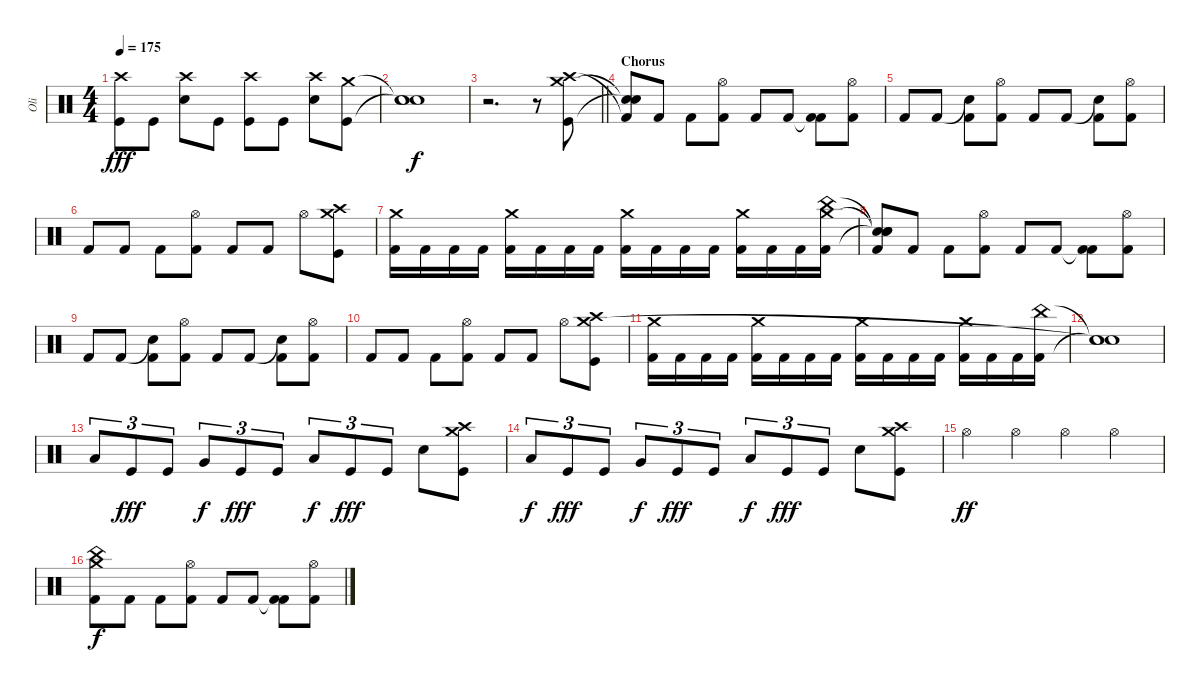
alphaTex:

\track ("Oli" "Oli") {instrument percussion}
\staff {score}
\articulation defaults
\ts (4 4)
\tempo 175
\clef neutral
\ks c
("Crash high (hit)" "Kick (hit)").8{dy fff} "Kick (hit)".8 ("Crash high (hit)" "Snare (hit) 2").8 "Kick (hit)".8 ("Crash high (hit)" "Kick (hit)").8 "Kick (hit)".8 ("Crash high (hit)" "Snare (hit) 2").8 ("Crash medium (hit)" "Kick (hit)").8 |
("Snare (hit)"{t} "Snare (hit)"{t} "Snare (hit)").1{dy f} |
\barLineRight lightlight
r.2{d} r.8 ("Kick (hit)" "Crash medium (hit)" "Crash high (hit)").8 |
\section ("" "Chorus")
("Snare (hit)"{t} "Snare (hit)"{t} "Kick (hit) 2"{t}).8 "Kick (hit) 2".8 "Kick (hit) 2".8 ("Hi-Hat (open)" "Kick (hit) 2").8 "Kick (hit) 2".8 "Kick (hit) 2".8 ("Kick (hit) 2"{t} "Kick (hit) 2").8 ("Hi-Hat (open)" "Kick (hit) 2").8 |
"Kick (hit) 2".8 "Kick (hit) 2".8 ("Snare (hit)"{t} "Kick (hit) 2").8 ("Hi-Hat (open)" "Kick (hit) 2").8 "Kick (hit) 2".8 "Kick (hit) 2".8 ("Snare (hit)"{t} "Kick (hit) 2").8 ("Hi-Hat (open)" "Kick (hit) 2").8 |
"Kick (hit) 2".8 "Kick (hit) 2".8 "Kick (hit) 2".8 ("Hi-Hat (open)" "Kick (hit) 2").8 "Kick (hit) 2".8 "Kick (hit) 2".8 "Hi-Hat (open)".8 ("Kick (hit)" "Crash high (hit)" "Crash medium (hit)").8 |
("Kick (hit) 2" "Crash medium (hit)").16 "Kick (hit) 2".16 "Kick (hit) 2".16 "Kick (hit) 2".16 ("Kick (hit) 2" "Crash medium (hit)").16 "Kick (hit) 2".16 "Kick (hit) 2".16 "Kick (hit) 2".16 ("Kick (hit) 2" "Crash medium (hit)").16 "Kick (hit) 2".16 "Kick (hit) 2".16 "Kick (hit) 2".16 ("Kick (hit) 2" "Crash medium (hit)").16 "Kick (hit) 2".16 "Kick (hit) 2".16 ("China (hit)" "Kick (hit) 2" "Crash medium (hit)").16 |
("Snare (hit)"{t} "Snare (hit)"{t} "Snare (hit)"{t} "Kick (hit) 2").8 "Kick (hit) 2".8 "Kick (hit) 2".8 ("Hi-Hat (open)" "Kick (hit) 2").8 "Kick (hit) 2".8 "Kick (hit) 2".8 ("Kick (hit) 2"{t} "Kick (hit) 2").8 ("Hi-Hat (open)" "Kick (hit) 2").8 |
"Kick (hit) 2".8 "Kick (hit) 2".8 ("Snare (hit)"{t} "Kick (hit) 2").8 ("Hi-Hat (open)" "Kick (hit) 2").8 "Kick (hit) 2".8 "Kick (hit) 2".8 ("Snare (hit)"{t} "Kick (hit) 2").8 ("Hi-Hat (open)" "Kick (hit) 2").8 |
"Kick (hit) 2".8 "Kick (hit) 2".8 "Kick (hit) 2".8 ("Hi-Hat (open)" "Kick (hit) 2").8 "Kick (hit) 2".8 "Kick (hit) 2".8 "Hi-Hat (open)".8 ("Kick (hit)" "Crash high (hit)" "Crash medium (hit)").8 |
("Kick (hit) 2" "Crash medium (hit)").16 "Kick (hit) 2".16 "Kick (hit) 2".16 "Kick (hit) 2".16 ("Kick (hit) 2" "Crash medium (hit)").16 "Kick (hit) 2".16 "Kick (hit) 2".16 "Kick (hit) 2".16 ("Kick (hit) 2" "Crash medium (hit)").16 "Kick (hit) 2".16 "Kick (hit) 2".16 "Kick (hit) 2".16 ("Kick (hit) 2" "Crash medium (hit)").16 "Kick (hit) 2".16 "Kick (hit) 2".16 ("China (hit)" "Kick (hit) 2").16 |
("Snare (hit)"{t} "Snare (hit)"{t} "Snare (hit)"{t}).1 |
"Low Tom (hit)".8{tu (3 2)} "Kick (hit)".8{tu (3 2) dy fff} "Kick (hit)".8{tu (3 2)} "Very Low Tom (hit)".8{tu (3 2) dy f} "Kick (hit)".8{tu (3 2) dy fff} "Kick (hit)".8{tu (3 2)} "Low Floor Tom (hit)".8{tu (3 2) dy f} "Kick (hit)".8{tu (3 2) dy fff} "Kick (hit)".8{tu (3 2)} "Snare (hit) 2".8 ("Kick (hit)" "Crash medium (hit)" "Crash high (hit)").8 |
"Low Tom (hit)".8{tu (3 2) dy f} "Kick (hit)".8{tu (3 2) dy fff} "Kick (hit)".8{tu (3 2)} "Very Low Tom (hit)".8{tu (3 2) dy f} "Kick (hit)".8{tu (3 2) dy fff} "Kick (hit)".8{tu (3 2)} "Low Floor Tom (hit)".8{tu (3 2) dy f} "Kick (hit)".8{tu (3 2) dy fff} "Kick (hit)".8{tu (3 2)} "Snare (hit) 2".8 ("Kick (hit)" "Crash medium (hit)" "Crash high (hit)").8 |
"Hi-Hat (open)".4{dy ff} "Hi-Hat (open)".4 "Hi-Hat (open)".4 "Hi-Hat (open)".4 |
("Crash medium (hit)" "China (hit)" "Kick (hit) 2").8{dy f} "Kick (hit) 2".8 "Kick (hit) 2".8 ("Hi-Hat (open)" "Kick (hit) 2").8 "Kick (hit) 2".8 "Kick (hit) 2".8 ("Kick (hit) 2"{t} "Kick (hit) 2").8 ("Hi-Hat (open)" "Kick (hit) 2").8
